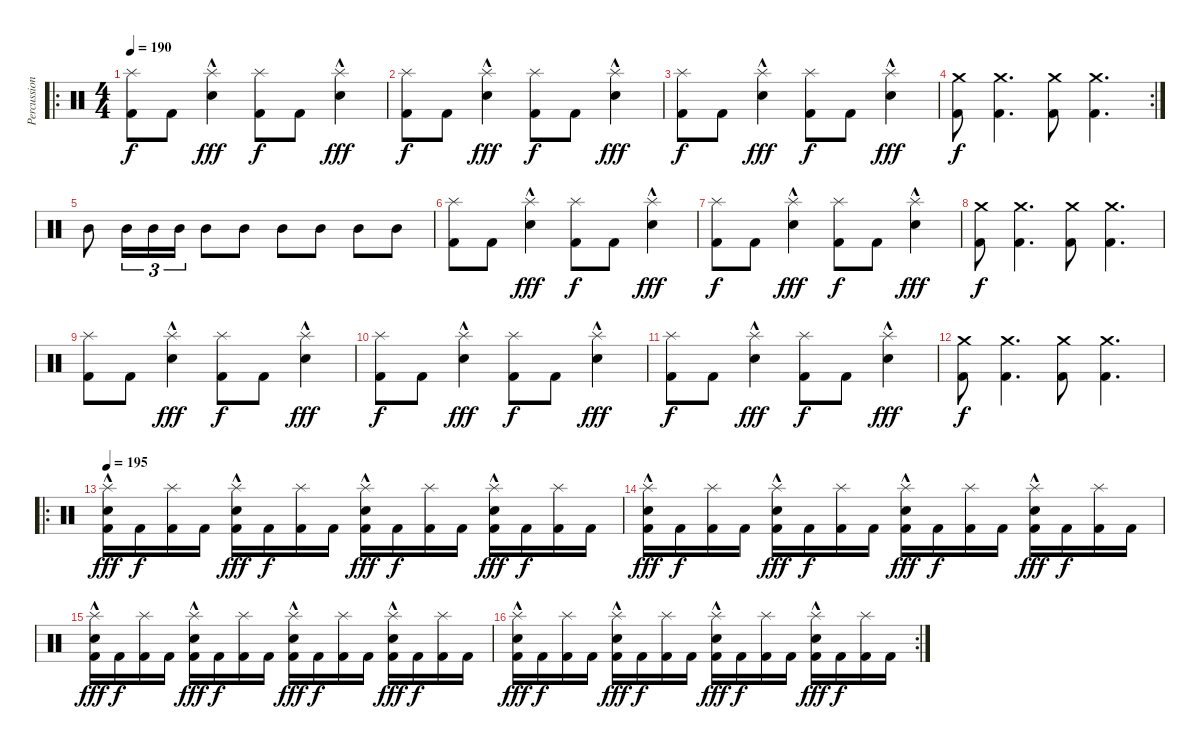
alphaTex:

\track ("Percussion" "Percussion") {instrument percussion}
\staff {score}
\articulation defaults
\ro
\ts (4 4)
\tempo 190
\clef neutral
\ks c
("Splash (hit)" "Kick (hit) 2").8{dy f} "Kick (hit) 2".8 ("Splash (hit)" "Snare (hit) 2"{hac}).4{dy fff} ("Splash (hit)" "Kick (hit) 2").8{dy f} "Kick (hit) 2".8 ("Splash (hit)" "Snare (hit) 2"{hac}).4{dy fff} |
("Splash (hit)" "Kick (hit) 2").8{dy f} "Kick (hit) 2".8 ("Splash (hit)" "Snare (hit) 2"{hac}).4{dy fff} ("Splash (hit)" "Kick (hit) 2").8{dy f} "Kick (hit) 2".8 ("Splash (hit)" "Snare (hit) 2"{hac}).4{dy fff} |
("Splash (hit)" "Kick (hit) 2").8{dy f} "Kick (hit) 2".8 ("Splash (hit)" "Snare (hit) 2"{hac}).4{dy fff} ("Splash (hit)" "Kick (hit) 2").8{dy f} "Kick (hit) 2".8 ("Splash (hit)" "Snare (hit) 2"{hac}).4{dy fff} |
\rc 2
("Crash medium (hit)" "Kick (hit) 2").8{dy f} ("Crash medium (hit)" "Kick (hit) 2").4{d} ("Crash medium (hit)" "Kick (hit) 2").8 ("Crash medium (hit)" "Kick (hit) 2").4{d} |
"Mid Tom (hit)".8 "Mid Tom (hit)".16{tu (3 2)} "Mid Tom (hit)".16{tu (3 2)} "Mid Tom (hit)".16{tu (3 2)} "Mid Tom (hit)".8 "Mid Tom (hit)".8 "Mid Tom (hit)".8 "Mid Tom (hit)".8 "Mid Tom (hit)".8 "Mid Tom (hit)".8 |
("Splash (hit)" "Kick (hit) 2").8 "Kick (hit) 2".8 ("Splash (hit)" "Snare (hit) 2"{hac}).4{dy fff} ("Splash (hit)" "Kick (hit) 2").8{dy f} "Kick (hit) 2".8 ("Splash (hit)" "Snare (hit) 2"{hac}).4{dy fff} |
("Splash (hit)" "Kick (hit) 2").8{dy f} "Kick (hit) 2".8 ("Splash (hit)" "Snare (hit) 2"{hac}).4{dy fff} ("Splash (hit)" "Kick (hit) 2").8{dy f} "Kick (hit) 2".8 ("Splash (hit)" "Snare (hit) 2"{hac}).4{dy fff} |
("Crash medium (hit)" "Kick (hit) 2").8{dy f} ("Crash medium (hit)" "Kick (hit) 2").4{d} ("Crash medium (hit)" "Kick (hit) 2").8 ("Crash medium (hit)" "Kick (hit) 2").4{d} |
("Splash (hit)" "Kick (hit) 2").8 "Kick (hit) 2".8 ("Splash (hit)" "Snare (hit) 2"{hac}).4{dy fff} ("Splash (hit)" "Kick (hit) 2").8{dy f} "Kick (hit) 2".8 ("Splash (hit)" "Snare (hit) 2"{hac}).4{dy fff} |
("Splash (hit)" "Kick (hit) 2").8{dy f} "Kick (hit) 2".8 ("Splash (hit)" "Snare (hit) 2"{hac}).4{dy fff} ("Splash (hit)" "Kick (hit) 2").8{dy f} "Kick (hit) 2".8 ("Splash (hit)" "Snare (hit) 2"{hac}).4{dy fff} |
("Splash (hit)" "Kick (hit) 2").8{dy f} "Kick (hit) 2".8 ("Splash (hit)" "Snare (hit) 2"{hac}).4{dy fff} ("Splash (hit)" "Kick (hit) 2").8{dy f} "Kick (hit) 2".8 ("Splash (hit)" "Snare (hit) 2"{hac}).4{dy fff} |
("Crash medium (hit)" "Kick (hit) 2").8{dy f} ("Crash medium (hit)" "Kick (hit) 2").4{d} ("Crash medium (hit)" "Kick (hit) 2").8 ("Crash medium (hit)" "Kick (hit) 2").4{d} |
\ro
\tempo 195
("Splash (hit)" "Snare (hit) 2"{hac} "Kick (hit) 2").16{dy fff} "Kick (hit) 2".16{dy f} ("Splash (hit)" "Kick (hit) 2").16 "Kick (hit) 2".16 ("Splash (hit)" "Snare (hit) 2"{hac} "Kick (hit) 2").16{dy fff} "Kick (hit) 2".16{dy f} ("Splash (hit)" "Kick (hit) 2").16 "Kick (hit) 2".16 ("Splash (hit)" "Snare (hit) 2"{hac} "Kick (hit) 2").16{dy fff} "Kick (hit) 2".16{dy f} ("Splash (hit)" "Kick (hit) 2").16 "Kick (hit) 2".16 ("Splash (hit)" "Snare (hit) 2"{hac} "Kick (hit) 2").16{dy fff} "Kick (hit) 2".16{dy f} ("Splash (hit)" "Kick (hit) 2").16 "Kick (hit) 2".16 |
("Splash (hit)" "Snare (hit) 2"{hac} "Kick (hit) 2").16{dy fff} "Kick (hit) 2".16{dy f} ("Splash (hit)" "Kick (hit) 2").16 "Kick (hit) 2".16 ("Splash (hit)" "Snare (hit) 2"{hac} "Kick (hit) 2").16{dy fff} "Kick (hit) 2".16{dy f} ("Splash (hit)" "Kick (hit) 2").16 "Kick (hit) 2".16 ("Splash (hit)" "Snare (hit) 2"{hac} "Kick (hit) 2").16{dy fff} "Kick (hit) 2".16{dy f} ("Splash (hit)" "Kick (hit) 2").16 "Kick (hit) 2".16 ("Splash (hit)" "Snare (hit) 2"{hac} "Kick (hit) 2").16{dy fff} "Kick (hit) 2".16{dy f} ("Splash (hit)" "Kick (hit) 2").16 "Kick (hit) 2".16 |
("Splash (hit)" "Snare (hit) 2"{hac} "Kick (hit) 2").16{dy fff} "Kick (hit) 2".16{dy f} ("Splash (hit)" "Kick (hit) 2").16 "Kick (hit) 2".16 ("Splash (hit)" "Snare (hit) 2"{hac} "Kick (hit) 2").16{dy fff} "Kick (hit) 2".16{dy f} ("Splash (hit)" "Kick (hit) 2").16 "Kick (hit) 2".16 ("Splash (hit)" "Snare (hit) 2"{hac} "Kick (hit) 2").16{dy fff} "Kick (hit) 2".16{dy f} ("Splash (hit)" "Kick (hit) 2").16 "Kick (hit) 2".16 ("Splash (hit)" "Snare (hit) 2"{hac} "Kick (hit) 2").16{dy fff} "Kick (hit) 2".16{dy f} ("Splash (hit)" "Kick (hit) 2").16 "Kick (hit) 2".16 |
\rc 2
("Splash (hit)" "Snare (hit) 2"{hac} "Kick (hit) 2").16{dy fff} "Kick (hit) 2".16{dy f} ("Splash (hit)" "Kick (hit) 2").16 "Kick (hit) 2".16 ("Splash (hit)" "Snare (hit) 2"{hac} "Kick (hit) 2").16{dy fff} "Kick (hit) 2".16{dy f} ("Splash (hit)" "Kick (hit) 2").16 "Kick (hit) 2".16 ("Splash (hit)" "Snare (hit) 2"{hac} "Kick (hit) 2").16{dy fff} "Kick (hit) 2".16{dy f} ("Splash (hit)" "Kick (hit) 2").16 "Kick (hit) 2".16 ("Splash (hit)" "Snare (hit) 2"{hac} "Kick (hit) 2").16{dy fff} "Kick (hit) 2".16{dy f} ("Splash (hit)" "Kick (hit) 2").16 "Kick (hit) 2".16
